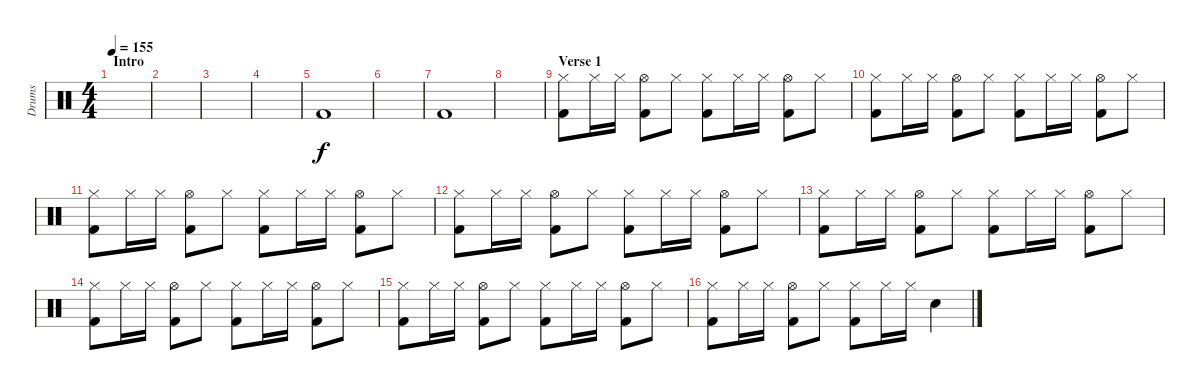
\track ("Drums" "Drums") {instrument percussion}
\staff {score}
\articulation defaults
\ts (4 4)
\section ("" "Intro")
\tempo 155
\clef neutral
\ks c
|
|
|
|
"Kick (hit) 2".1 |
|
"Kick (hit) 2".1 |
|
\section ("" "Verse 1")
("Hi-Hat (closed)" "Kick (hit) 2").8 "Hi-Hat (closed)".16 "Hi-Hat (closed)".16 ("Hi-Hat (open)" "Kick (hit) 2").8 "Hi-Hat (closed)".8 ("Hi-Hat (closed)" "Kick (hit) 2").8 "Hi-Hat (closed)".16 "Hi-Hat (closed)".16 ("Hi-Hat (open)" "Kick (hit) 2").8 "Hi-Hat (closed)".8 |
("Hi-Hat (closed)" "Kick (hit) 2").8 "Hi-Hat (closed)".16 "Hi-Hat (closed)".16 ("Hi-Hat (open)" "Kick (hit) 2").8 "Hi-Hat (closed)".8 ("Hi-Hat (closed)" "Kick (hit) 2").8 "Hi-Hat (closed)".16 "Hi-Hat (closed)".16 ("Hi-Hat (open)" "Kick (hit) 2").8 "Hi-Hat (closed)".8 |
("Hi-Hat (closed)" "Kick (hit) 2").8 "Hi-Hat (closed)".16 "Hi-Hat (closed)".16 ("Hi-Hat (open)" "Kick (hit) 2").8 "Hi-Hat (closed)".8 ("Hi-Hat (closed)" "Kick (hit) 2").8 "Hi-Hat (closed)".16 "Hi-Hat (closed)".16 ("Hi-Hat (open)" "Kick (hit) 2").8 "Hi-Hat (closed)".8 |
("Hi-Hat (closed)" "Kick (hit) 2").8 "Hi-Hat (closed)".16 "Hi-Hat (closed)".16 ("Hi-Hat (open)" "Kick (hit) 2").8 "Hi-Hat (closed)".8 ("Hi-Hat (closed)" "Kick (hit) 2").8 "Hi-Hat (closed)".16 "Hi-Hat (closed)".16 ("Hi-Hat (open)" "Kick (hit) 2").8 "Hi-Hat (closed)".8 |
("Hi-Hat (closed)" "Kick (hit) 2").8 "Hi-Hat (closed)".16 "Hi-Hat (closed)".16 ("Hi-Hat (open)" "Kick (hit) 2").8 "Hi-Hat (closed)".8 ("Hi-Hat (closed)" "Kick (hit) 2").8 "Hi-Hat (closed)".16 "Hi-Hat (closed)".16 ("Hi-Hat (open)" "Kick (hit) 2").8 "Hi-Hat (closed)".8 |
("Hi-Hat (closed)" "Kick (hit) 2").8 "Hi-Hat (closed)".16 "Hi-Hat (closed)".16 ("Hi-Hat (open)" "Kick (hit) 2").8 "Hi-Hat (closed)".8 ("Hi-Hat (closed)" "Kick (hit) 2").8 "Hi-Hat (closed)".16 "Hi-Hat (closed)".16 ("Hi-Hat (open)" "Kick (hit) 2").8 "Hi-Hat (closed)".8 |
("Hi-Hat (closed)" "Kick (hit) 2").8 "Hi-Hat (closed)".16 "Hi-Hat (closed)".16 ("Hi-Hat (open)" "Kick (hit) 2").8 "Hi-Hat (closed)".8 ("Hi-Hat (closed)" "Kick (hit) 2").8 "Hi-Hat (closed)".16 "Hi-Hat (closed)".16 ("Hi-Hat (open)" "Kick (hit) 2").8 "Hi-Hat (closed)".8 |
("Hi-Hat (closed)" "Kick (hit) 2").8 "Hi-Hat (closed)".16 "Hi-Hat (closed)".16 ("Hi-Hat (open)" "Kick (hit) 2").8 "Hi-Hat (closed)".8 ("Hi-Hat (closed)" "Kick (hit) 2").8 "Hi-Hat (closed)".16 "Hi-Hat (closed)".16 "Snare (hit) 2".4
